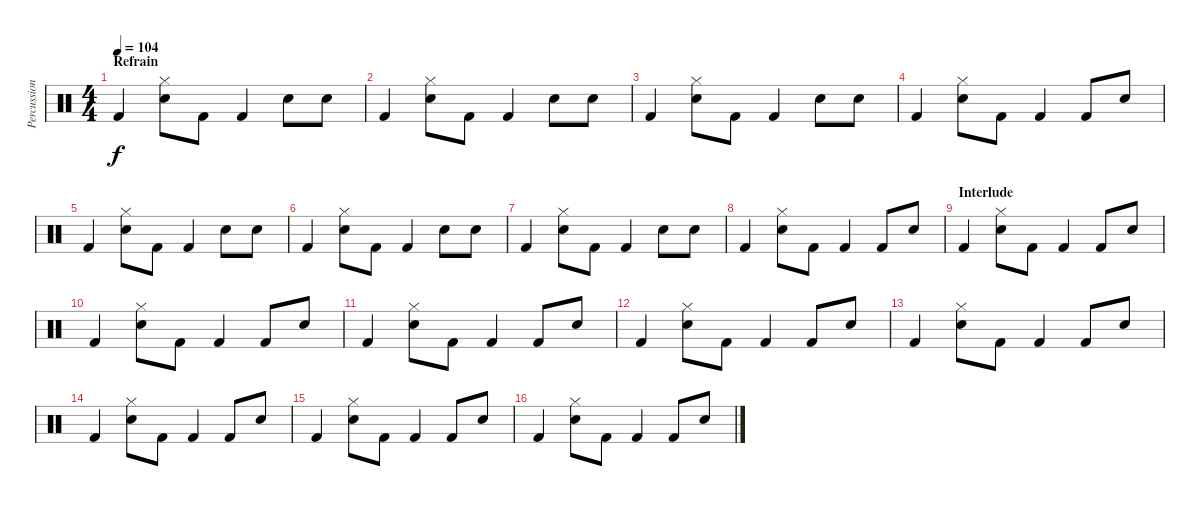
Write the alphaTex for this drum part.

\track ("Percussions" "Percussion") {instrument percussion}
\staff {score}
\articulation defaults
\ts (4 4)
\section ("" "Refrain")
\tempo 104
\clef neutral
\ks c "Kick (hit) 2".4{dy f}
("Hi-Hat (closed)" "Snare (hit) 2").8 "Kick (hit) 2".8 "Kick (hit) 2".4 "Snare (hit) 2".8 "Electric Snare (hit)".8 |
"Kick (hit) 2".4 ("Hi-Hat (closed)" "Snare (hit) 2").8 "Kick (hit) 2".8 "Kick (hit) 2".4 "Snare (hit) 2".8 "Electric Snare (hit)".8 |
"Kick (hit) 2".4 ("Hi-Hat (closed)" "Snare (hit) 2").8 "Kick (hit) 2".8 "Kick (hit) 2".4 "Snare (hit) 2".8 "Electric Snare (hit)".8 |
"Kick (hit) 2".4 ("Hi-Hat (closed)" "Snare (hit) 2").8 "Kick (hit) 2".8 "Kick (hit) 2".4 "Kick (hit) 2".8 "Electric Snare (hit)".8 |
"Kick (hit) 2".4 ("Hi-Hat (closed)" "Snare (hit) 2").8 "Kick (hit) 2".8 "Kick (hit) 2".4 "Snare (hit) 2".8 "Electric Snare (hit)".8 |
"Kick (hit) 2".4 ("Hi-Hat (closed)" "Snare (hit) 2").8 "Kick (hit) 2".8 "Kick (hit) 2".4 "Snare (hit) 2".8 "Electric Snare (hit)".8 |
"Kick (hit) 2".4 ("Hi-Hat (closed)" "Snare (hit) 2").8 "Kick (hit) 2".8 "Kick (hit) 2".4 "Snare (hit) 2".8 "Electric Snare (hit)".8 |
"Kick (hit) 2".4 ("Hi-Hat (closed)" "Snare (hit) 2").8 "Kick (hit) 2".8 "Kick (hit) 2".4 "Kick (hit) 2".8 "Electric Snare (hit)".8 |
\section ("" "Interlude")
"Kick (hit) 2".4 ("Hi-Hat (closed)" "Snare (hit) 2").8 "Kick (hit) 2".8 "Kick (hit) 2".4 "Kick (hit) 2".8 "Electric Snare (hit)".8 |
"Kick (hit) 2".4 ("Hi-Hat (closed)" "Snare (hit) 2").8 "Kick (hit) 2".8 "Kick (hit) 2".4 "Kick (hit) 2".8 "Electric Snare (hit)".8 |
"Kick (hit) 2".4 ("Hi-Hat (closed)" "Snare (hit) 2").8 "Kick (hit) 2".8 "Kick (hit) 2".4 "Kick (hit) 2".8 "Electric Snare (hit)".8 |
"Kick (hit) 2".4 ("Hi-Hat (closed)" "Snare (hit) 2").8 "Kick (hit) 2".8 "Kick (hit) 2".4 "Kick (hit) 2".8 "Electric Snare (hit)".8 |
"Kick (hit) 2".4 ("Hi-Hat (closed)" "Snare (hit) 2").8 "Kick (hit) 2".8 "Kick (hit) 2".4 "Kick (hit) 2".8 "Electric Snare (hit)".8 |
"Kick (hit) 2".4 ("Hi-Hat (closed)" "Snare (hit) 2").8 "Kick (hit) 2".8 "Kick (hit) 2".4 "Kick (hit) 2".8 "Electric Snare (hit)".8 |
"Kick (hit) 2".4 ("Hi-Hat (closed)" "Snare (hit) 2").8 "Kick (hit) 2".8 "Kick (hit) 2".4 "Kick (hit) 2".8 "Electric Snare (hit)".8 |
"Kick (hit) 2".4 ("Hi-Hat (closed)" "Snare (hit) 2").8 "Kick (hit) 2".8 "Kick (hit) 2".4 "Kick (hit) 2".8 "Electric Snare (hit)".8
